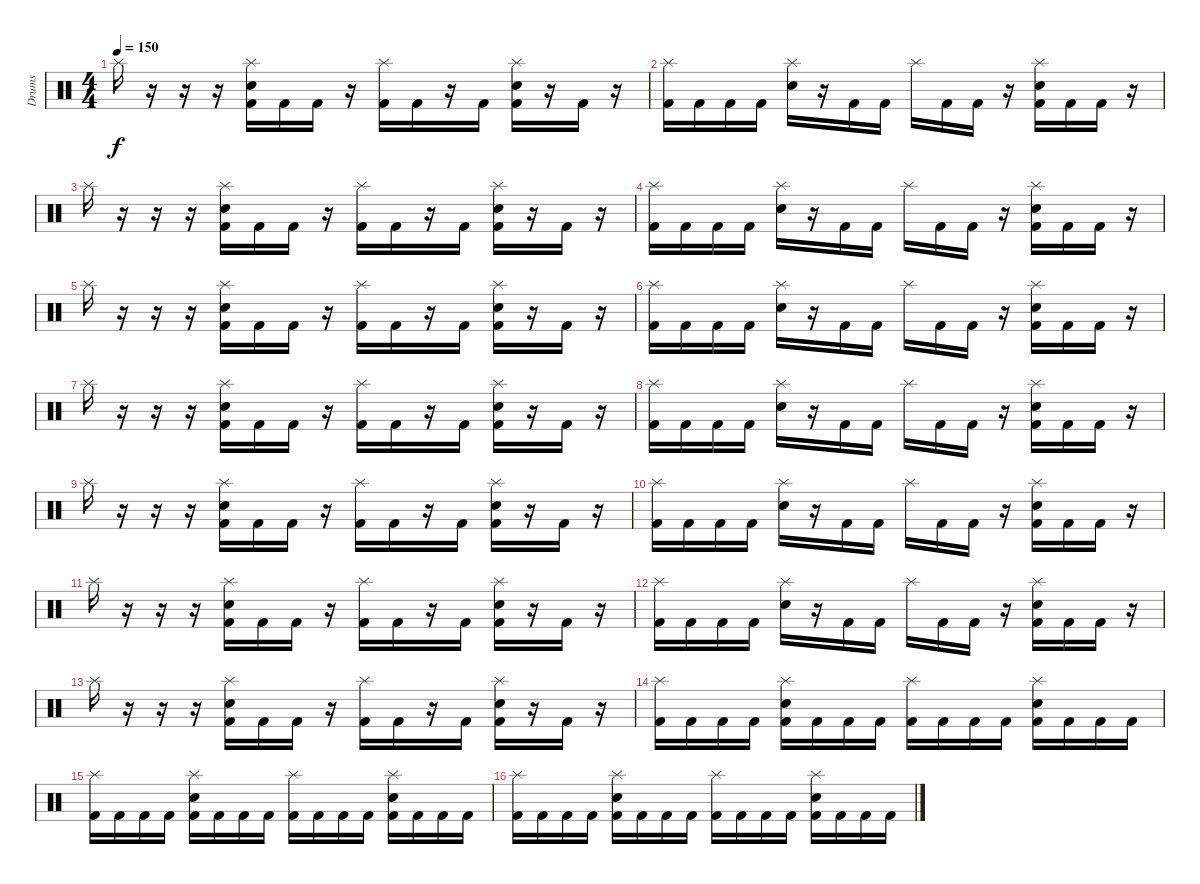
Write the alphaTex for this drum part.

\track ("Drums" "Drums") {instrument percussion}
\staff {score}
\articulation defaults
\ts (4 4)
\tempo 150
\clef neutral
\ks c "Splash (hit)".16{dy f}
r.16 r.16 r.16 ("Splash (hit)" "Electric Snare (hit)" "Kick (hit) 2").16 "Kick (hit) 2".16 "Kick (hit) 2".16 r.16 ("Splash (hit)" "Kick (hit) 2").16 "Kick (hit) 2".16 r.16 "Kick (hit) 2".16 ("Splash (hit)" "Electric Snare (hit)" "Kick (hit) 2").16 r.16 "Kick (hit) 2".16 r.16 |
("Splash (hit)" "Kick (hit) 2").16 "Kick (hit) 2".16 "Kick (hit) 2".16 "Kick (hit) 2".16 ("Splash (hit)" "Electric Snare (hit)").16 r.16 "Kick (hit) 2".16 "Kick (hit) 2".16 "Splash (hit)".16 "Kick (hit) 2".16 "Kick (hit) 2".16 r.16 ("Splash (hit)" "Electric Snare (hit)" "Kick (hit) 2").16 "Kick (hit) 2".16 "Kick (hit) 2".16 r.16 |
"Splash (hit)".16 r.16 r.16 r.16 ("Splash (hit)" "Electric Snare (hit)" "Kick (hit) 2").16 "Kick (hit) 2".16 "Kick (hit) 2".16 r.16 ("Splash (hit)" "Kick (hit) 2").16 "Kick (hit) 2".16 r.16 "Kick (hit) 2".16 ("Splash (hit)" "Electric Snare (hit)" "Kick (hit) 2").16 r.16 "Kick (hit) 2".16 r.16 |
("Splash (hit)" "Kick (hit) 2").16 "Kick (hit) 2".16 "Kick (hit) 2".16 "Kick (hit) 2".16 ("Splash (hit)" "Electric Snare (hit)").16 r.16 "Kick (hit) 2".16 "Kick (hit) 2".16 "Splash (hit)".16 "Kick (hit) 2".16 "Kick (hit) 2".16 r.16 ("Splash (hit)" "Electric Snare (hit)" "Kick (hit) 2").16 "Kick (hit) 2".16 "Kick (hit) 2".16 r.16 |
"Splash (hit)".16 r.16 r.16 r.16 ("Splash (hit)" "Electric Snare (hit)" "Kick (hit) 2").16 "Kick (hit) 2".16 "Kick (hit) 2".16 r.16 ("Splash (hit)" "Kick (hit) 2").16 "Kick (hit) 2".16 r.16 "Kick (hit) 2".16 ("Splash (hit)" "Electric Snare (hit)" "Kick (hit) 2").16 r.16 "Kick (hit) 2".16 r.16 |
("Splash (hit)" "Kick (hit) 2").16 "Kick (hit) 2".16 "Kick (hit) 2".16 "Kick (hit) 2".16 ("Splash (hit)" "Electric Snare (hit)").16 r.16 "Kick (hit) 2".16 "Kick (hit) 2".16 "Splash (hit)".16 "Kick (hit) 2".16 "Kick (hit) 2".16 r.16 ("Splash (hit)" "Electric Snare (hit)" "Kick (hit) 2").16 "Kick (hit) 2".16 "Kick (hit) 2".16 r.16 |
"Splash (hit)".16 r.16 r.16 r.16 ("Splash (hit)" "Electric Snare (hit)" "Kick (hit) 2").16 "Kick (hit) 2".16 "Kick (hit) 2".16 r.16 ("Splash (hit)" "Kick (hit) 2").16 "Kick (hit) 2".16 r.16 "Kick (hit) 2".16 ("Splash (hit)" "Electric Snare (hit)" "Kick (hit) 2").16 r.16 "Kick (hit) 2".16 r.16 |
("Splash (hit)" "Kick (hit) 2").16 "Kick (hit) 2".16 "Kick (hit) 2".16 "Kick (hit) 2".16 ("Splash (hit)" "Electric Snare (hit)").16 r.16 "Kick (hit) 2".16 "Kick (hit) 2".16 "Splash (hit)".16 "Kick (hit) 2".16 "Kick (hit) 2".16 r.16 ("Splash (hit)" "Electric Snare (hit)" "Kick (hit) 2").16 "Kick (hit) 2".16 "Kick (hit) 2".16 r.16 |
"Splash (hit)".16 r.16 r.16 r.16 ("Splash (hit)" "Electric Snare (hit)" "Kick (hit) 2").16 "Kick (hit) 2".16 "Kick (hit) 2".16 r.16 ("Splash (hit)" "Kick (hit) 2").16 "Kick (hit) 2".16 r.16 "Kick (hit) 2".16 ("Splash (hit)" "Electric Snare (hit)" "Kick (hit) 2").16 r.16 "Kick (hit) 2".16 r.16 |
("Splash (hit)" "Kick (hit) 2").16 "Kick (hit) 2".16 "Kick (hit) 2".16 "Kick (hit) 2".16 ("Splash (hit)" "Electric Snare (hit)").16 r.16 "Kick (hit) 2".16 "Kick (hit) 2".16 "Splash (hit)".16 "Kick (hit) 2".16 "Kick (hit) 2".16 r.16 ("Splash (hit)" "Electric Snare (hit)" "Kick (hit) 2").16 "Kick (hit) 2".16 "Kick (hit) 2".16 r.16 |
"Splash (hit)".16 r.16 r.16 r.16 ("Splash (hit)" "Electric Snare (hit)" "Kick (hit) 2").16 "Kick (hit) 2".16 "Kick (hit) 2".16 r.16 ("Splash (hit)" "Kick (hit) 2").16 "Kick (hit) 2".16 r.16 "Kick (hit) 2".16 ("Splash (hit)" "Electric Snare (hit)" "Kick (hit) 2").16 r.16 "Kick (hit) 2".16 r.16 |
("Splash (hit)" "Kick (hit) 2").16 "Kick (hit) 2".16 "Kick (hit) 2".16 "Kick (hit) 2".16 ("Splash (hit)" "Electric Snare (hit)").16 r.16 "Kick (hit) 2".16 "Kick (hit) 2".16 "Splash (hit)".16 "Kick (hit) 2".16 "Kick (hit) 2".16 r.16 ("Splash (hit)" "Electric Snare (hit)" "Kick (hit) 2").16 "Kick (hit) 2".16 "Kick (hit) 2".16 r.16 |
"Splash (hit)".16 r.16 r.16 r.16 ("Splash (hit)" "Electric Snare (hit)" "Kick (hit) 2").16 "Kick (hit) 2".16 "Kick (hit) 2".16 r.16 ("Splash (hit)" "Kick (hit) 2").16 "Kick (hit) 2".16 r.16 "Kick (hit) 2".16 ("Splash (hit)" "Electric Snare (hit)" "Kick (hit) 2").16 r.16 "Kick (hit) 2".16 r.16 |
("Splash (hit)" "Kick (hit) 2").16 "Kick (hit) 2".16 "Kick (hit) 2".16 "Kick (hit) 2".16 ("Splash (hit)" "Electric Snare (hit)" "Kick (hit) 2").16 "Kick (hit) 2".16 "Kick (hit) 2".16 "Kick (hit) 2".16 ("Splash (hit)" "Kick (hit) 2").16 "Kick (hit) 2".16 "Kick (hit) 2".16 "Kick (hit) 2".16 ("Splash (hit)" "Electric Snare (hit)" "Kick (hit) 2").16 "Kick (hit) 2".16 "Kick (hit) 2".16 "Kick (hit) 2".16 |
("Splash (hit)" "Kick (hit) 2").16 "Kick (hit) 2".16 "Kick (hit) 2".16 "Kick (hit) 2".16 ("Splash (hit)" "Electric Snare (hit)" "Kick (hit) 2").16 "Kick (hit) 2".16 "Kick (hit) 2".16 "Kick (hit) 2".16 ("Splash (hit)" "Kick (hit) 2").16 "Kick (hit) 2".16 "Kick (hit) 2".16 "Kick (hit) 2".16 ("Splash (hit)" "Electric Snare (hit)" "Kick (hit) 2").16 "Kick (hit) 2".16 "Kick (hit) 2".16 "Kick (hit) 2".16 |
("Splash (hit)" "Kick (hit) 2").16 "Kick (hit) 2".16 "Kick (hit) 2".16 "Kick (hit) 2".16 ("Splash (hit)" "Electric Snare (hit)" "Kick (hit) 2").16 "Kick (hit) 2".16 "Kick (hit) 2".16 "Kick (hit) 2".16 ("Splash (hit)" "Kick (hit) 2").16 "Kick (hit) 2".16 "Kick (hit) 2".16 "Kick (hit) 2".16 ("Splash (hit)" "Electric Snare (hit)" "Kick (hit) 2").16 "Kick (hit) 2".16 "Kick (hit) 2".16 "Kick (hit) 2".16
